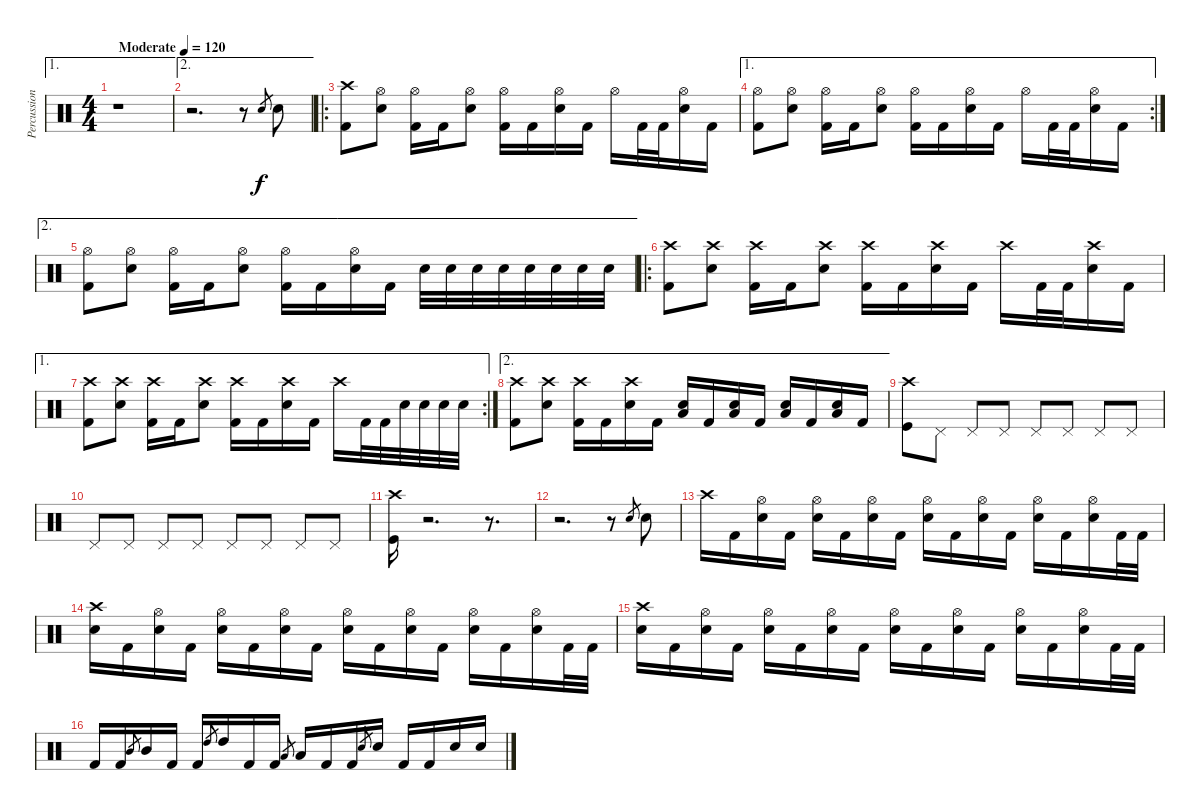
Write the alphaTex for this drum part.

\track ("Percussions" "Percussion") {instrument percussion}
\staff {score}
\articulation defaults
\ae 1
\ts (4 4)
\tempo (120 "Moderate")
\clef neutral
\ks c
r.1{dy f} |
\ae 2
r.2{d} r.8 "Snare (hit) 2".8{gr} "Snare (hit) 2".8 |
\ro
("Crash high (hit)" "Kick (hit) 2").8 ("Hi-Hat (open)" "Snare (hit) 2").8 ("Hi-Hat (open)" "Kick (hit) 2").16 "Kick (hit) 2".16 ("Hi-Hat (open)" "Snare (hit) 2").8 ("Hi-Hat (open)" "Kick (hit) 2").16 "Kick (hit) 2".16 ("Hi-Hat (open)" "Snare (hit) 2").16 "Kick (hit) 2".16 "Hi-Hat (open)".16 "Kick (hit) 2".32 "Kick (hit) 2".32 ("Hi-Hat (open)" "Snare (hit) 2").16 "Kick (hit) 2".16 |
\ae 1
\rc 2
("Hi-Hat (open)" "Kick (hit) 2").8 ("Hi-Hat (open)" "Snare (hit) 2").8 ("Hi-Hat (open)" "Kick (hit) 2").16 "Kick (hit) 2".16 ("Hi-Hat (open)" "Snare (hit) 2").8 ("Hi-Hat (open)" "Kick (hit) 2").16 "Kick (hit) 2".16 ("Hi-Hat (open)" "Snare (hit) 2").16 "Kick (hit) 2".16 "Hi-Hat (open)".16 "Kick (hit) 2".32 "Kick (hit) 2".32 ("Hi-Hat (open)" "Snare (hit) 2").16 "Kick (hit) 2".16 |
\ae 2
("Hi-Hat (open)" "Kick (hit) 2").8 ("Hi-Hat (open)" "Snare (hit) 2").8 ("Hi-Hat (open)" "Kick (hit) 2").16 "Kick (hit) 2".16 ("Hi-Hat (open)" "Snare (hit) 2").8 ("Hi-Hat (open)" "Kick (hit) 2").16 "Kick (hit) 2".16 ("Hi-Hat (open)" "Snare (hit) 2").16 "Kick (hit) 2".16 "Snare (hit) 2".32 "Snare (hit) 2".32 "Snare (hit) 2".32 "Snare (hit) 2".32 "Snare (hit) 2".32 "Snare (hit) 2".32 "Snare (hit) 2".32 "Snare (hit) 2".32 |
\ro
("Crash high (hit)" "Kick (hit) 2").8 ("Crash high (hit)" "Snare (hit) 2").8 ("Crash high (hit)" "Kick (hit) 2").16 "Kick (hit) 2".16 ("Crash high (hit)" "Snare (hit) 2").8 ("Crash high (hit)" "Kick (hit) 2").16 "Kick (hit) 2".16 ("Crash high (hit)" "Snare (hit) 2").16 "Kick (hit) 2".16 "Crash high (hit)".16 "Kick (hit) 2".32 "Kick (hit) 2".32 ("Crash high (hit)" "Snare (hit) 2").16 "Kick (hit) 2".16 |
\ae 1
\rc 2
("Crash high (hit)" "Kick (hit) 2").8 ("Crash high (hit)" "Snare (hit) 2").8 ("Crash high (hit)" "Kick (hit) 2").16 "Kick (hit) 2".16 ("Crash high (hit)" "Snare (hit) 2").8 ("Crash high (hit)" "Kick (hit) 2").16 "Kick (hit) 2".16 ("Crash high (hit)" "Snare (hit) 2").16 "Kick (hit) 2".16 "Crash high (hit)".16 "Kick (hit) 2".32 "Kick (hit) 2".32 "Snare (hit) 2".32 "Snare (hit) 2".32 "Snare (hit) 2".32 "Snare (hit) 2".32 |
\ae 2
("Crash high (hit)" "Kick (hit) 2").8 ("Crash high (hit)" "Snare (hit) 2").8 ("Crash high (hit)" "Kick (hit) 2").16 "Kick (hit) 2".16 ("Crash high (hit)" "Snare (hit) 2").16 "Kick (hit) 2".16 ("Low Tom (hit)" "Snare (hit) 2").16 "Kick (hit) 2".16 ("Low Tom (hit)" "Snare (hit) 2").16 "Kick (hit) 2".16 ("Low Tom (hit)" "Snare (hit) 2").16 "Kick (hit) 2".16 ("Low Tom (hit)" "Snare (hit) 2").16 "Kick (hit) 2".16 |
("Crash high (hit)" "Kick (hit)").8 "Pedal Hi-Hat (hit)".8 "Pedal Hi-Hat (hit)".8 "Pedal Hi-Hat (hit)".8 "Pedal Hi-Hat (hit)".8 "Pedal Hi-Hat (hit)".8 "Pedal Hi-Hat (hit)".8 "Pedal Hi-Hat (hit)".8 |
"Pedal Hi-Hat (hit)".8 "Pedal Hi-Hat (hit)".8 "Pedal Hi-Hat (hit)".8 "Pedal Hi-Hat (hit)".8 "Pedal Hi-Hat (hit)".8 "Pedal Hi-Hat (hit)".8 "Pedal Hi-Hat (hit)".8 "Pedal Hi-Hat (hit)".8 |
("Crash high (hit)" "Kick (hit)").16 r.2{d} r.8{d} |
r.2{d} r.8 "Snare (hit) 2".8{gr} "Snare (hit) 2".8 |
"Crash high (hit)".16 "Kick (hit) 2".16 ("Hi-Hat (open)" "Snare (hit) 2").16 "Kick (hit) 2".16 ("Hi-Hat (open)" "Snare (hit) 2").16 "Kick (hit) 2".16 ("Hi-Hat (open)" "Snare (hit) 2").16 "Kick (hit) 2".16 ("Hi-Hat (open)" "Snare (hit) 2").16 "Kick (hit) 2".16 ("Hi-Hat (open)" "Snare (hit) 2").16 "Kick (hit) 2".16 ("Hi-Hat (open)" "Snare (hit) 2").16 "Kick (hit) 2".16 ("Hi-Hat (open)" "Snare (hit) 2").16 "Kick (hit) 2".32 "Kick (hit) 2".32 |
("Crash high (hit)" "Snare (hit) 2").16 "Kick (hit) 2".16 ("Hi-Hat (open)" "Snare (hit) 2").16 "Kick (hit) 2".16 ("Hi-Hat (open)" "Snare (hit) 2").16 "Kick (hit) 2".16 ("Hi-Hat (open)" "Snare (hit) 2").16 "Kick (hit) 2".16 ("Hi-Hat (open)" "Snare (hit) 2").16 "Kick (hit) 2".16 ("Hi-Hat (open)" "Snare (hit) 2").16 "Kick (hit) 2".16 ("Hi-Hat (open)" "Snare (hit) 2").16 "Kick (hit) 2".16 ("Hi-Hat (open)" "Snare (hit) 2").16 "Kick (hit) 2".32 "Kick (hit) 2".32 |
("Crash high (hit)" "Snare (hit) 2").16 "Kick (hit) 2".16 ("Hi-Hat (open)" "Snare (hit) 2").16 "Kick (hit) 2".16 ("Hi-Hat (open)" "Snare (hit) 2").16 "Kick (hit) 2".16 ("Hi-Hat (open)" "Snare (hit) 2").16 "Kick (hit) 2".16 ("Hi-Hat (open)" "Snare (hit) 2").16 "Kick (hit) 2".16 ("Hi-Hat (open)" "Snare (hit) 2").16 "Kick (hit) 2".16 ("Hi-Hat (open)" "Snare (hit) 2").16 "Kick (hit) 2".16 ("Hi-Hat (open)" "Snare (hit) 2").16 "Kick (hit) 2".32 "Kick (hit) 2".32 |
"Kick (hit) 2".16 "Kick (hit) 2".16 "Mid Tom (hit)".8{gr} "Mid Tom (hit)".16 "Kick (hit) 2".16 "Kick (hit) 2".16 "High Tom (hit)".8{gr} "High Tom (hit)".16 "Kick (hit) 2".16 "Kick (hit) 2".16 "Low Tom (hit)".8{gr} "Low Tom (hit)".16 "Kick (hit) 2".16 "Kick (hit) 2".16 "Snare (hit) 2".8{gr} "Snare (hit) 2".16 "Kick (hit) 2".16 "Kick (hit) 2".16 "Snare (hit) 2".16 "Snare (hit) 2".16
